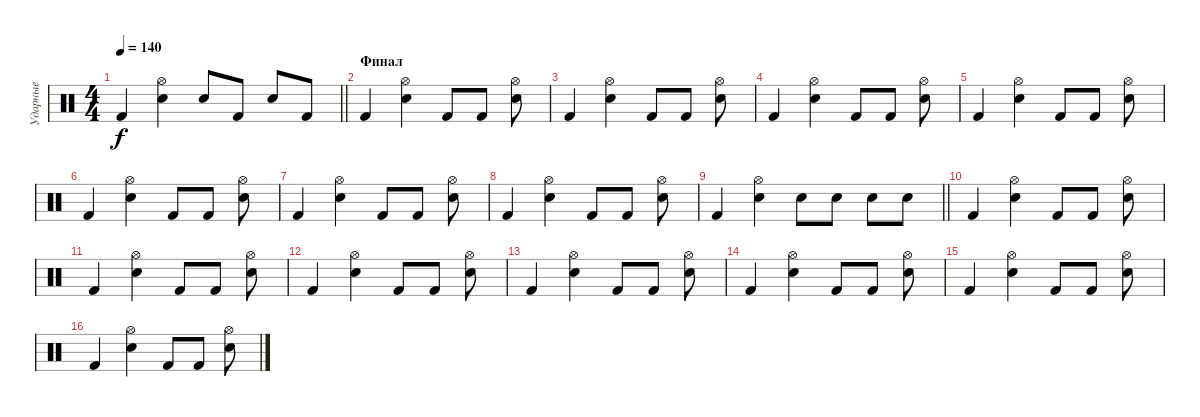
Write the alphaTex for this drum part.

\track ("Ударные" "Ударные") {instrument percussion}
\staff {score}
\articulation defaults
\ts (4 4)
\tempo 140
\clef neutral
\barLineRight lightlight
\ks c "Kick (hit) 2".4{dy f}
("Electric Snare (hit)" "Hi-Hat (open)").4 "Electric Snare (hit)".8 "Kick (hit) 2".8 "Electric Snare (hit)".8 "Kick (hit) 2".8 |
\section ("" "Финал")
"Kick (hit) 2".4 ("Electric Snare (hit)" "Hi-Hat (open)").4 "Kick (hit) 2".8 "Kick (hit) 2".8 ("Electric Snare (hit)" "Hi-Hat (open)").8 |
"Kick (hit) 2".4 ("Electric Snare (hit)" "Hi-Hat (open)").4 "Kick (hit) 2".8 "Kick (hit) 2".8 ("Electric Snare (hit)" "Hi-Hat (open)").8 |
"Kick (hit) 2".4 ("Electric Snare (hit)" "Hi-Hat (open)").4 "Kick (hit) 2".8 "Kick (hit) 2".8 ("Electric Snare (hit)" "Hi-Hat (open)").8 |
"Kick (hit) 2".4 ("Electric Snare (hit)" "Hi-Hat (open)").4 "Kick (hit) 2".8 "Kick (hit) 2".8 ("Electric Snare (hit)" "Hi-Hat (open)").8 |
"Kick (hit) 2".4 ("Electric Snare (hit)" "Hi-Hat (open)").4 "Kick (hit) 2".8 "Kick (hit) 2".8 ("Electric Snare (hit)" "Hi-Hat (open)").8 |
"Kick (hit) 2".4 ("Electric Snare (hit)" "Hi-Hat (open)").4 "Kick (hit) 2".8 "Kick (hit) 2".8 ("Electric Snare (hit)" "Hi-Hat (open)").8 |
"Kick (hit) 2".4 ("Electric Snare (hit)" "Hi-Hat (open)").4 "Kick (hit) 2".8 "Kick (hit) 2".8 ("Electric Snare (hit)" "Hi-Hat (open)").8 |
\barLineRight lightlight "Kick (hit) 2".4
("Electric Snare (hit)" "Hi-Hat (open)").4 "Electric Snare (hit)".8 "Electric Snare (hit)".8 "Electric Snare (hit)".8 "Electric Snare (hit)".8 |
"Kick (hit) 2".4 ("Electric Snare (hit)" "Hi-Hat (open)").4 "Kick (hit) 2".8 "Kick (hit) 2".8 ("Electric Snare (hit)" "Hi-Hat (open)").8 |
"Kick (hit) 2".4 ("Electric Snare (hit)" "Hi-Hat (open)").4 "Kick (hit) 2".8 "Kick (hit) 2".8 ("Electric Snare (hit)" "Hi-Hat (open)").8 |
"Kick (hit) 2".4 ("Electric Snare (hit)" "Hi-Hat (open)").4 "Kick (hit) 2".8 "Kick (hit) 2".8 ("Electric Snare (hit)" "Hi-Hat (open)").8 |
"Kick (hit) 2".4 ("Electric Snare (hit)" "Hi-Hat (open)").4 "Kick (hit) 2".8 "Kick (hit) 2".8 ("Electric Snare (hit)" "Hi-Hat (open)").8 |
"Kick (hit) 2".4 ("Electric Snare (hit)" "Hi-Hat (open)").4 "Kick (hit) 2".8 "Kick (hit) 2".8 ("Electric Snare (hit)" "Hi-Hat (open)").8 |
"Kick (hit) 2".4 ("Electric Snare (hit)" "Hi-Hat (open)").4 "Kick (hit) 2".8 "Kick (hit) 2".8 ("Electric Snare (hit)" "Hi-Hat (open)").8 |
"Kick (hit) 2".4 ("Electric Snare (hit)" "Hi-Hat (open)").4 "Kick (hit) 2".8 "Kick (hit) 2".8 ("Electric Snare (hit)" "Hi-Hat (open)").8
